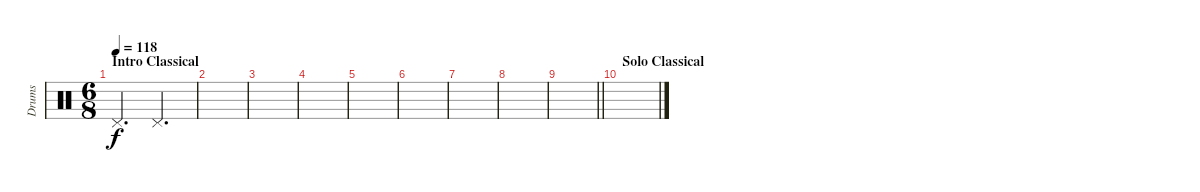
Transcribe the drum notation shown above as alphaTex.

\track ("Drums" "Drums") {instrument percussion}
\staff {score}
\articulation defaults
\ts (6 8)
\section ("" "Intro Classical")
\tempo 118
\clef neutral
\ks c "Pedal Hi-Hat (hit)".4{d dy f} "Pedal Hi-Hat (hit)".4{d}
|
|
|
|
|
|
|
|
\barLineRight lightlight
|
\section ("" "Solo Classical")
